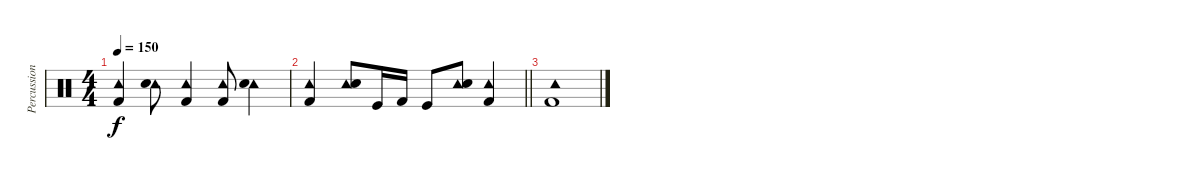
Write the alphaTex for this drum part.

\track ("Percussion" "Percussion") {instrument percussion bank 3}
\staff {score}
\articulation defaults
\ts (4 4)
\tempo 150
\clef neutral
\ks c
("Tambourine (hit)" "Kick (hit) 2").4{dy f} ("Tambourine (hit)" "Snare (hit) 2").8 ("Tambourine (hit)" "Kick (hit) 2").4 ("Tambourine (hit)" "Kick (hit) 2").8 ("Tambourine (hit)" "Snare (hit) 2").4 |
\barLineRight lightlight
("Tambourine (hit)" "Kick (hit) 2").4 ("Tambourine (hit)" "Snare (hit) 2").8 "Kick (hit)".16 "Kick (hit) 2".16 "Kick (hit)".8 ("Tambourine (hit)" "Snare (hit) 2").8 ("Tambourine (hit)" "Kick (hit) 2").4 |
("Tambourine (hit)" "Kick (hit) 2").1
